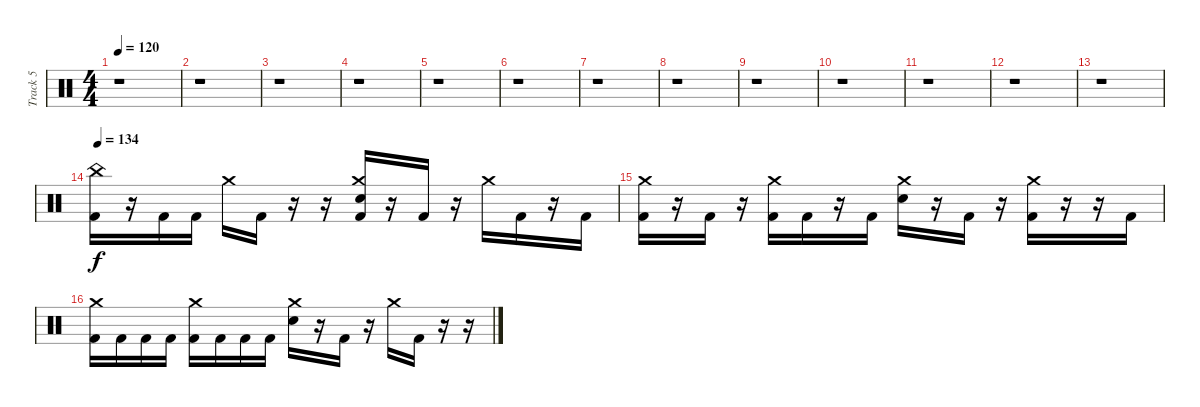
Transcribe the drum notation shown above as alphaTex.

\track ("Track 5" "Track 5") {instrument percussion}
\staff {score}
\articulation defaults
\ts (4 4)
\tempo 120
\clef neutral
\ks c
r.1{dy f} |
r.1 |
r.1 |
r.1 |
r.1 |
r.1 |
r.1 |
r.1 |
r.1 |
r.1 |
r.1 |
r.1 |
r.1 |
\tempo 134
("China (hit)" "Kick (hit) 2").16 r.16 "Kick (hit) 2".16 "Kick (hit) 2".16 "Crash medium (hit)".16 "Kick (hit) 2".16 r.16 r.16 ("Crash medium (hit)" "Electric Snare (hit)" "Kick (hit) 2").16 r.16 "Kick (hit) 2".16 r.16 "Crash medium (hit)".16 "Kick (hit) 2".16 r.16 "Kick (hit) 2".16 |
("Crash medium (hit)" "Kick (hit) 2").16 r.16 "Kick (hit) 2".16 r.16 ("Crash medium (hit)" "Kick (hit) 2").16 "Kick (hit) 2".16 r.16 "Kick (hit) 2".16 ("Crash medium (hit)" "Electric Snare (hit)").16 r.16 "Kick (hit) 2".16 r.16 ("Crash medium (hit)" "Kick (hit) 2").16 r.16 r.16 "Kick (hit) 2".16 |
("Crash medium (hit)" "Kick (hit) 2").16 "Kick (hit) 2".16 "Kick (hit) 2".16 "Kick (hit) 2".16 ("Crash medium (hit)" "Kick (hit) 2").16 "Kick (hit) 2".16 "Kick (hit) 2".16 "Kick (hit) 2".16 ("Crash medium (hit)" "Electric Snare (hit)").16 r.16 "Kick (hit) 2".16 r.16 "Crash medium (hit)".16 "Kick (hit) 2".16 r.16 r.16
